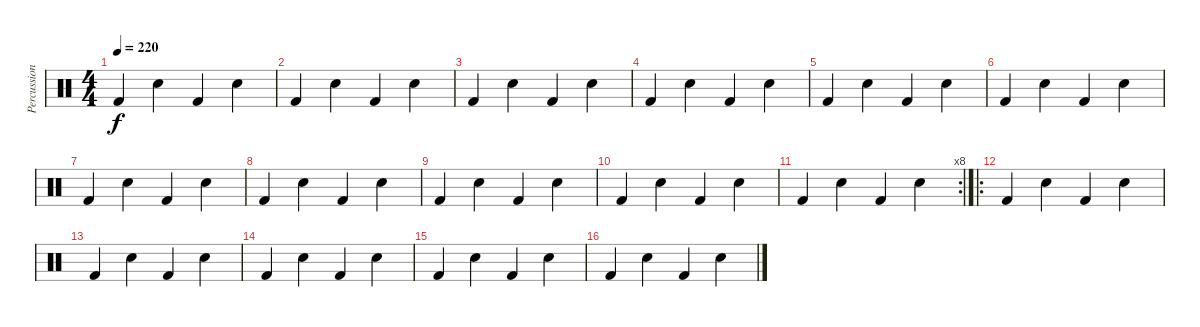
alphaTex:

\track ("Percussions" "Percussion") {instrument percussion}
\staff {score}
\articulation defaults
\ts (4 4)
\tempo 220
\clef neutral
\ks c "Kick (hit) 2".4{dy f} "Snare (hit) 2".4 "Kick (hit) 2".4 "Snare (hit) 2".4
|
"Kick (hit) 2".4 "Snare (hit) 2".4 "Kick (hit) 2".4 "Snare (hit) 2".4 |
"Kick (hit) 2".4 "Snare (hit) 2".4 "Kick (hit) 2".4 "Snare (hit) 2".4 |
"Kick (hit) 2".4 "Snare (hit) 2".4 "Kick (hit) 2".4 "Snare (hit) 2".4 |
"Kick (hit) 2".4 "Snare (hit) 2".4 "Kick (hit) 2".4 "Snare (hit) 2".4 |
"Kick (hit) 2".4 "Snare (hit) 2".4 "Kick (hit) 2".4 "Snare (hit) 2".4 |
"Kick (hit) 2".4 "Snare (hit) 2".4 "Kick (hit) 2".4 "Snare (hit) 2".4 |
"Kick (hit) 2".4 "Snare (hit) 2".4 "Kick (hit) 2".4 "Snare (hit) 2".4 |
"Kick (hit) 2".4 "Snare (hit) 2".4 "Kick (hit) 2".4 "Snare (hit) 2".4 |
"Kick (hit) 2".4 "Snare (hit) 2".4 "Kick (hit) 2".4 "Snare (hit) 2".4 |
\rc 8 "Kick (hit) 2".4 "Snare (hit) 2".4 "Kick (hit) 2".4 "Snare (hit) 2".4
|
\ro "Kick (hit) 2".4 "Snare (hit) 2".4 "Kick (hit) 2".4 "Snare (hit) 2".4
|
"Kick (hit) 2".4 "Snare (hit) 2".4 "Kick (hit) 2".4 "Snare (hit) 2".4 |
"Kick (hit) 2".4 "Snare (hit) 2".4 "Kick (hit) 2".4 "Snare (hit) 2".4 |
"Kick (hit) 2".4 "Snare (hit) 2".4 "Kick (hit) 2".4 "Snare (hit) 2".4 |
"Kick (hit) 2".4 "Snare (hit) 2".4 "Kick (hit) 2".4 "Snare (hit) 2".4
